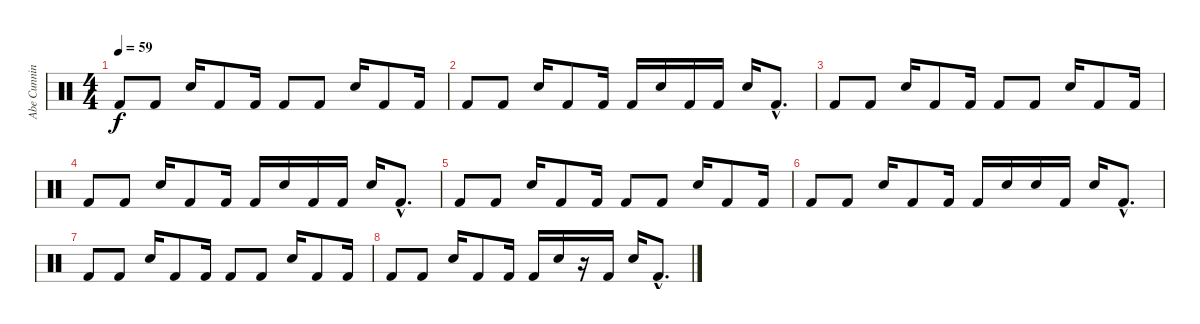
\track ("Abe Cunningham Toms& Snare" "Abe Cunnin") {instrument percussion}
\staff {score}
\articulation defaults
\ts (4 4)
\tempo 59
\clef neutral
\ks c "Kick (hit) 2".8{dy f} "Kick (hit) 2".8 "Snare (hit) 2".16 "Kick (hit) 2".8 "Kick (hit) 2".16 "Kick (hit) 2".8 "Kick (hit) 2".8 "Snare (hit) 2".16 "Kick (hit) 2".8 "Kick (hit) 2".16
|
"Kick (hit) 2".8 "Kick (hit) 2".8 "Snare (hit) 2".16 "Kick (hit) 2".8 "Kick (hit) 2".16 "Kick (hit) 2".16 "Snare (hit) 2".16 "Kick (hit) 2".16 "Kick (hit) 2".16 "Snare (hit) 2".16 "Kick (hit) 2"{hac}.8{d} |
"Kick (hit) 2".8 "Kick (hit) 2".8 "Snare (hit) 2".16 "Kick (hit) 2".8 "Kick (hit) 2".16 "Kick (hit) 2".8 "Kick (hit) 2".8 "Snare (hit) 2".16 "Kick (hit) 2".8 "Kick (hit) 2".16 |
"Kick (hit) 2".8 "Kick (hit) 2".8 "Snare (hit) 2".16 "Kick (hit) 2".8 "Kick (hit) 2".16 "Kick (hit) 2".16 "Snare (hit) 2".16 "Kick (hit) 2".16 "Kick (hit) 2".16 "Snare (hit) 2".16 "Kick (hit) 2"{hac}.8{d} |
"Kick (hit) 2".8 "Kick (hit) 2".8 "Snare (hit) 2".16 "Kick (hit) 2".8 "Kick (hit) 2".16 "Kick (hit) 2".8 "Kick (hit) 2".8 "Snare (hit) 2".16 "Kick (hit) 2".8 "Kick (hit) 2".16 |
"Kick (hit) 2".8 "Kick (hit) 2".8 "Snare (hit) 2".16 "Kick (hit) 2".8 "Kick (hit) 2".16 "Kick (hit) 2".16 "Snare (hit) 2".16 "Snare (hit) 2".16 "Kick (hit) 2".16 "Snare (hit) 2".16 "Kick (hit) 2"{hac}.8{d} |
"Kick (hit) 2".8 "Kick (hit) 2".8 "Snare (hit) 2".16 "Kick (hit) 2".8 "Kick (hit) 2".16 "Kick (hit) 2".8 "Kick (hit) 2".8 "Snare (hit) 2".16 "Kick (hit) 2".8 "Kick (hit) 2".16 |
"Kick (hit) 2".8 "Kick (hit) 2".8 "Snare (hit) 2".16 "Kick (hit) 2".8 "Kick (hit) 2".16 "Kick (hit) 2".16 "Snare (hit) 2".16 r.16 "Kick (hit) 2".16 "Snare (hit) 2".16 "Kick (hit) 2"{hac}.8{d}
